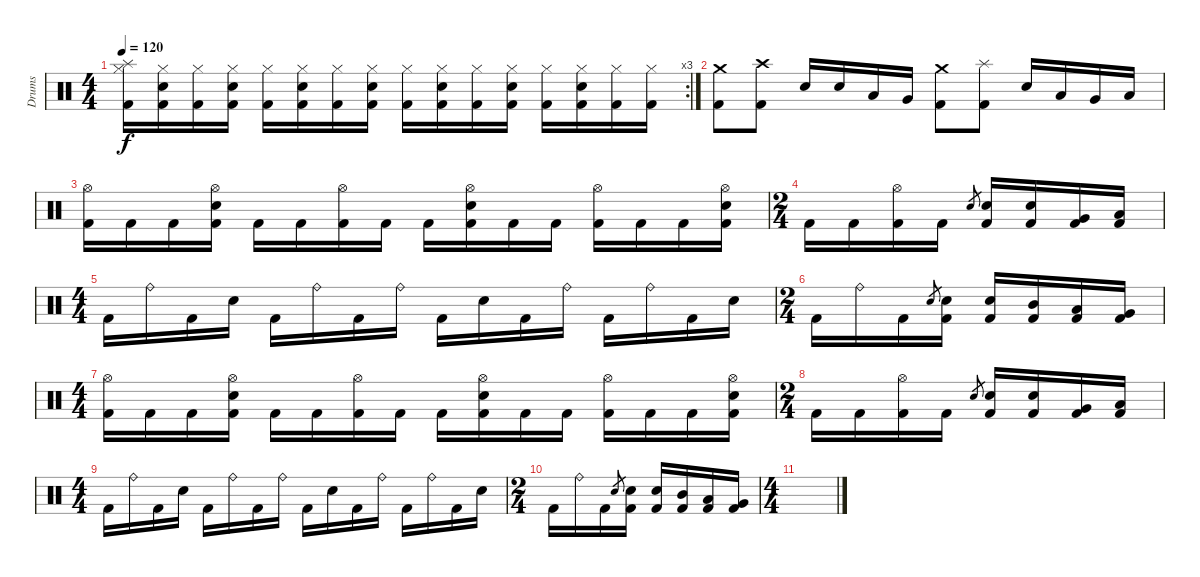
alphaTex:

\track ("Drums" "Drums") {instrument percussion}
\staff {score}
\articulation defaults
\rc 3
\ts (4 4)
\tempo 120
\clef neutral
\ks c
("Splash (hit)" "Hi-Hat (closed)" "Kick (hit) 2").16{dy f} ("Hi-Hat (closed)" "Kick (hit) 2" "Electric Snare (hit)").16 ("Hi-Hat (closed)" "Kick (hit) 2").16 ("Hi-Hat (closed)" "Kick (hit) 2" "Electric Snare (hit)").16 ("Hi-Hat (closed)" "Kick (hit) 2").16 ("Hi-Hat (closed)" "Kick (hit) 2" "Electric Snare (hit)").16 ("Hi-Hat (closed)" "Kick (hit) 2").16 ("Hi-Hat (closed)" "Kick (hit) 2" "Electric Snare (hit)").16 ("Hi-Hat (closed)" "Kick (hit) 2").16 ("Hi-Hat (closed)" "Kick (hit) 2" "Electric Snare (hit)").16 ("Hi-Hat (closed)" "Kick (hit) 2").16 ("Hi-Hat (closed)" "Kick (hit) 2" "Electric Snare (hit)").16 ("Hi-Hat (closed)" "Kick (hit) 2").16 ("Hi-Hat (closed)" "Kick (hit) 2" "Electric Snare (hit)").16 ("Hi-Hat (closed)" "Kick (hit) 2").16 ("Hi-Hat (closed)" "Kick (hit) 2").16 |
("Crash medium (hit)" "Kick (hit) 2").8 ("Crash high (hit)" "Kick (hit) 2").8 "Electric Snare (hit)".16 "Electric Snare (hit)".16 "Low Tom (hit)".16 "Very Low Tom (hit)".16 ("Crash medium (hit)" "Kick (hit) 2").8 ("Splash (hit)" "Kick (hit) 2").8 "Electric Snare (hit)".16 "Low Tom (hit)".16 "Very Low Tom (hit)".16 "Low Floor Tom (hit)".16 |
("Hi-Hat (open)" "Kick (hit) 2").16 "Kick (hit) 2".16 "Kick (hit) 2".16 ("Electric Snare (hit)" "Hi-Hat (open)" "Kick (hit) 2").16 "Kick (hit) 2".16 "Kick (hit) 2".16 ("Hi-Hat (open)" "Kick (hit) 2").16 "Kick (hit) 2".16 "Kick (hit) 2".16 ("Electric Snare (hit)" "Hi-Hat (open)" "Kick (hit) 2").16 "Kick (hit) 2".16 "Kick (hit) 2".16 ("Hi-Hat (open)" "Kick (hit) 2").16 "Kick (hit) 2".16 "Kick (hit) 2".16 ("Electric Snare (hit)" "Hi-Hat (open)" "Kick (hit) 2").16 |
\ts (2 4)
"Kick (hit) 2".16 "Kick (hit) 2".16 ("Hi-Hat (open)" "Kick (hit) 2").16 "Kick (hit) 2".16 "Electric Snare (hit)".8{gr} ("Electric Snare (hit)" "Kick (hit) 2").16 ("Electric Snare (hit)" "Kick (hit) 2").16 ("Very Low Tom (hit)" "Kick (hit) 2").16 ("Low Floor Tom (hit)" "Kick (hit) 2").16 |
\ts (4 4)
"Kick (hit) 2".16 "Ride (bell)".16 "Kick (hit) 2".16 "Electric Snare (hit)".16 "Kick (hit) 2".16 "Ride (bell)".16 "Kick (hit) 2".16 "Ride (bell)".16 "Kick (hit) 2".16 "Electric Snare (hit)".16 "Kick (hit) 2".16 "Ride (bell)".16 "Kick (hit) 2".16 "Ride (bell)".16 "Kick (hit) 2".16 "Electric Snare (hit)".16 |
\ts (2 4)
"Kick (hit) 2".16 "Ride (bell)".16 "Kick (hit) 2".16 "Electric Snare (hit)".8{gr} ("Electric Snare (hit)" "Kick (hit) 2").16 ("Electric Snare (hit)" "Kick (hit) 2").16 ("Mid Tom (hit)" "Kick (hit) 2").16 ("Low Tom (hit)" "Kick (hit) 2").16 ("Very Low Tom (hit)" "Kick (hit) 2").16 |
\ts (4 4)
("Hi-Hat (open)" "Kick (hit) 2").16 "Kick (hit) 2".16 "Kick (hit) 2".16 ("Electric Snare (hit)" "Hi-Hat (open)" "Kick (hit) 2").16 "Kick (hit) 2".16 "Kick (hit) 2".16 ("Hi-Hat (open)" "Kick (hit) 2").16 "Kick (hit) 2".16 "Kick (hit) 2".16 ("Electric Snare (hit)" "Hi-Hat (open)" "Kick (hit) 2").16 "Kick (hit) 2".16 "Kick (hit) 2".16 ("Hi-Hat (open)" "Kick (hit) 2").16 "Kick (hit) 2".16 "Kick (hit) 2".16 ("Electric Snare (hit)" "Hi-Hat (open)" "Kick (hit) 2").16 |
\ts (2 4)
"Kick (hit) 2".16 "Kick (hit) 2".16 ("Hi-Hat (open)" "Kick (hit) 2").16 "Kick (hit) 2".16 "Electric Snare (hit)".8{gr} ("Electric Snare (hit)" "Kick (hit) 2").16 ("Electric Snare (hit)" "Kick (hit) 2").16 ("Very Low Tom (hit)" "Kick (hit) 2").16 ("Low Floor Tom (hit)" "Kick (hit) 2").16 |
\ts (4 4)
"Kick (hit) 2".16 "Ride (bell)".16 "Kick (hit) 2".16 "Electric Snare (hit)".16 "Kick (hit) 2".16 "Ride (bell)".16 "Kick (hit) 2".16 "Ride (bell)".16 "Kick (hit) 2".16 "Electric Snare (hit)".16 "Kick (hit) 2".16 "Ride (bell)".16 "Kick (hit) 2".16 "Ride (bell)".16 "Kick (hit) 2".16 "Electric Snare (hit)".16 |
\ts (2 4)
"Kick (hit) 2".16 "Ride (bell)".16 "Kick (hit) 2".16 "Electric Snare (hit)".8{gr} ("Electric Snare (hit)" "Kick (hit) 2").16 ("Electric Snare (hit)" "Kick (hit) 2").16 ("Mid Tom (hit)" "Kick (hit) 2").16 ("Low Tom (hit)" "Kick (hit) 2").16 ("Very Low Tom (hit)" "Kick (hit) 2").16 |
\ts (4 4)
